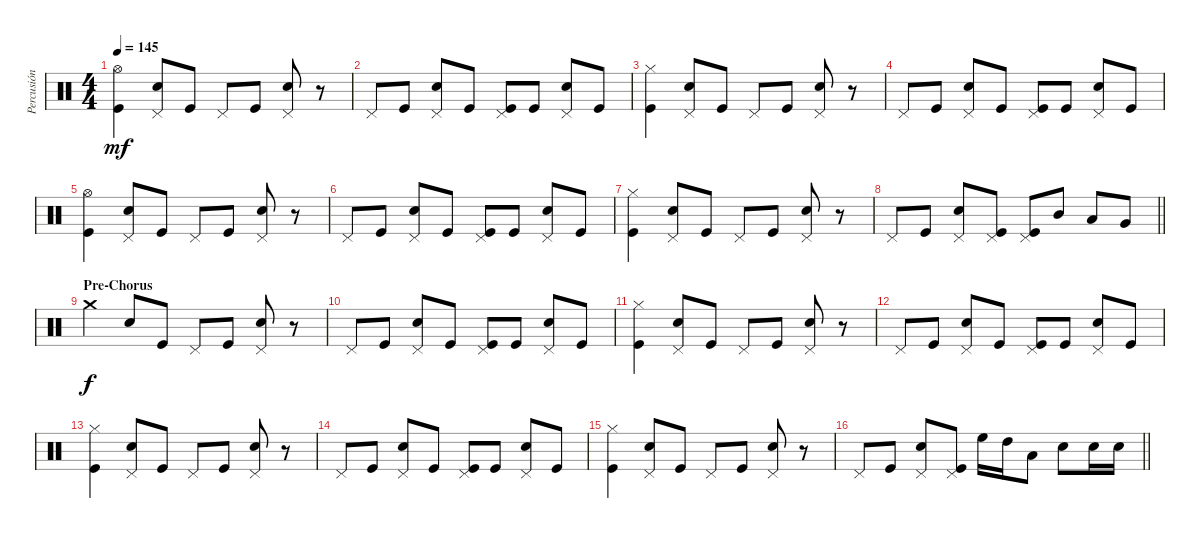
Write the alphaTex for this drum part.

\track ("Percusión" "Percusión") {instrument percussion}
\staff {score}
\articulation defaults
\ts (4 4)
\tempo 145
\clef neutral
\ks c
("Hi-Hat (open)" "Kick (hit)").4{dy mf} ("Pedal Hi-Hat (hit)" "Snare (hit) 2").8 "Kick (hit)".8 "Pedal Hi-Hat (hit)".8 "Kick (hit)".8 ("Pedal Hi-Hat (hit)" "Snare (hit) 2").8 r.8 |
"Pedal Hi-Hat (hit)".8 "Kick (hit)".8 ("Pedal Hi-Hat (hit)" "Snare (hit) 2").8 "Kick (hit)".8 ("Pedal Hi-Hat (hit)" "Kick (hit)").8 "Kick (hit)".8 ("Pedal Hi-Hat (hit)" "Snare (hit) 2").8 "Kick (hit)".8 |
("Hi-Hat (closed)" "Kick (hit)").4 ("Pedal Hi-Hat (hit)" "Snare (hit) 2").8 "Kick (hit)".8 "Pedal Hi-Hat (hit)".8 "Kick (hit)".8 ("Pedal Hi-Hat (hit)" "Snare (hit) 2").8 r.8 |
"Pedal Hi-Hat (hit)".8 "Kick (hit)".8 ("Pedal Hi-Hat (hit)" "Snare (hit) 2").8 "Kick (hit)".8 ("Pedal Hi-Hat (hit)" "Kick (hit)").8 "Kick (hit)".8 ("Pedal Hi-Hat (hit)" "Snare (hit) 2").8 "Kick (hit)".8 |
("Hi-Hat (open)" "Kick (hit)").4 ("Pedal Hi-Hat (hit)" "Snare (hit) 2").8 "Kick (hit)".8 "Pedal Hi-Hat (hit)".8 "Kick (hit)".8 ("Pedal Hi-Hat (hit)" "Snare (hit) 2").8 r.8 |
"Pedal Hi-Hat (hit)".8 "Kick (hit)".8 ("Pedal Hi-Hat (hit)" "Snare (hit) 2").8 "Kick (hit)".8 ("Pedal Hi-Hat (hit)" "Kick (hit)").8 "Kick (hit)".8 ("Pedal Hi-Hat (hit)" "Snare (hit) 2").8 "Kick (hit)".8 |
("Hi-Hat (closed)" "Kick (hit)").4 ("Pedal Hi-Hat (hit)" "Snare (hit) 2").8 "Kick (hit)".8 "Pedal Hi-Hat (hit)".8 "Kick (hit)".8 ("Pedal Hi-Hat (hit)" "Snare (hit) 2").8 r.8 |
\barLineRight lightlight "Pedal Hi-Hat (hit)".8 "Kick (hit)".8
("Pedal Hi-Hat (hit)" "Snare (hit) 2").8 ("Pedal Hi-Hat (hit)" "Kick (hit)").8 ("Pedal Hi-Hat (hit)" "Kick (hit)").8 "Mid Tom (hit)".8 "Low Tom (hit)".8 "Very Low Tom (hit)".8 |
\section ("" "Pre-Chorus")
"Crash medium (hit)".4{dy f} "Snare (hit) 2".8 "Kick (hit)".8 "Pedal Hi-Hat (hit)".8 "Kick (hit)".8 ("Pedal Hi-Hat (hit)" "Snare (hit) 2").8 r.8 |
"Pedal Hi-Hat (hit)".8 "Kick (hit)".8 ("Pedal Hi-Hat (hit)" "Snare (hit) 2").8 "Kick (hit)".8 ("Pedal Hi-Hat (hit)" "Kick (hit)").8 "Kick (hit)".8 ("Pedal Hi-Hat (hit)" "Snare (hit) 2").8 "Kick (hit)".8 |
("Hi-Hat (closed)" "Kick (hit)").4 ("Pedal Hi-Hat (hit)" "Snare (hit) 2").8 "Kick (hit)".8 "Pedal Hi-Hat (hit)".8 "Kick (hit)".8 ("Pedal Hi-Hat (hit)" "Snare (hit) 2").8 r.8 |
"Pedal Hi-Hat (hit)".8 "Kick (hit)".8 ("Pedal Hi-Hat (hit)" "Snare (hit) 2").8 "Kick (hit)".8 ("Pedal Hi-Hat (hit)" "Kick (hit)").8 "Kick (hit)".8 ("Pedal Hi-Hat (hit)" "Snare (hit) 2").8 "Kick (hit)".8 |
("Hi-Hat (closed)" "Kick (hit)").4 ("Pedal Hi-Hat (hit)" "Snare (hit) 2").8 "Kick (hit)".8 "Pedal Hi-Hat (hit)".8 "Kick (hit)".8 ("Pedal Hi-Hat (hit)" "Snare (hit) 2").8 r.8 |
"Pedal Hi-Hat (hit)".8 "Kick (hit)".8 ("Pedal Hi-Hat (hit)" "Snare (hit) 2").8 "Kick (hit)".8 ("Pedal Hi-Hat (hit)" "Kick (hit)").8 "Kick (hit)".8 ("Pedal Hi-Hat (hit)" "Snare (hit) 2").8 "Kick (hit)".8 |
("Hi-Hat (closed)" "Kick (hit)").4 ("Pedal Hi-Hat (hit)" "Snare (hit) 2").8 "Kick (hit)".8 "Pedal Hi-Hat (hit)".8 "Kick (hit)".8 ("Pedal Hi-Hat (hit)" "Snare (hit) 2").8 r.8 |
\barLineRight lightlight "Pedal Hi-Hat (hit)".8 "Kick (hit)".8
("Pedal Hi-Hat (hit)" "Snare (hit) 2").8 ("Pedal Hi-Hat (hit)" "Kick (hit)").8 "High Floor Tom (hit)".16 "High Tom (hit)".16 "Low Tom (hit)".8 "Snare (hit) 2".8 "Snare (hit) 2".16 "Snare (hit) 2".16
